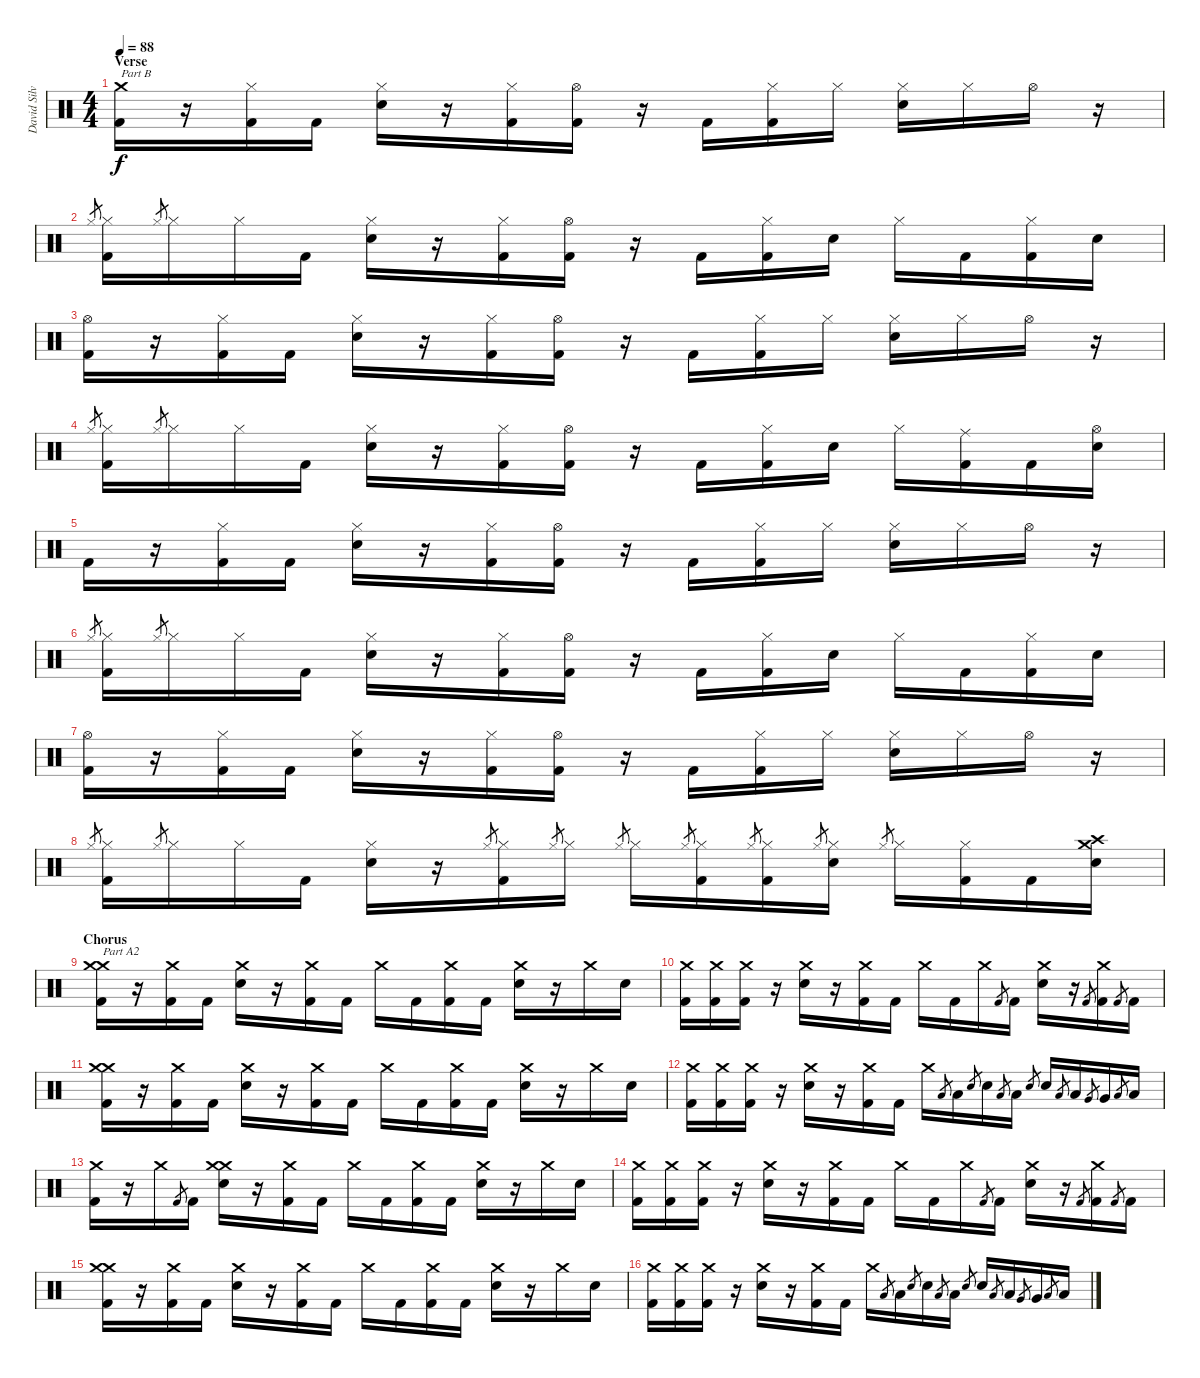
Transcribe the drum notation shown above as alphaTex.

\track ("David Silveria" "David Silv") {instrument percussion}
\staff {score}
\articulation defaults
\ts (4 4)
\section ("" "Verse")
\tempo 88
\clef neutral
\ks c
("Crash medium (hit)" "Kick (hit) 2").16{txt "Part B" dy f} r.16 ("Hi-Hat (closed)" "Kick (hit) 2").16 "Kick (hit) 2".16 ("Hi-Hat (closed)" "Snare (hit) 2").16 r.16 ("Hi-Hat (closed)" "Kick (hit) 2").16 ("Hi-Hat (open)" "Kick (hit) 2").16 r.16 "Kick (hit) 2".16 ("Hi-Hat (closed)" "Kick (hit) 2").16 "Hi-Hat (closed)".16 ("Hi-Hat (closed)" "Snare (hit) 2").16 "Hi-Hat (closed)".16 "Hi-Hat (open)".16 r.16 |
"Hi-Hat (closed)".8{gr} ("Hi-Hat (closed)" "Kick (hit) 2").16 "Hi-Hat (closed)".8{gr} "Hi-Hat (closed)".16 "Hi-Hat (closed)".16 "Kick (hit) 2".16 ("Hi-Hat (closed)" "Snare (hit) 2").16 r.16 ("Hi-Hat (closed)" "Kick (hit) 2").16 ("Hi-Hat (open)" "Kick (hit) 2").16 r.16 "Kick (hit) 2".16 ("Hi-Hat (closed)" "Kick (hit) 2").16 "Snare (hit) 2".16 "Hi-Hat (closed)".16 "Kick (hit) 2".16 ("Hi-Hat (closed)" "Kick (hit) 2").16 "Snare (hit) 2".16 |
("Hi-Hat (open)" "Kick (hit) 2").16 r.16 ("Hi-Hat (closed)" "Kick (hit) 2").16 "Kick (hit) 2".16 ("Hi-Hat (closed)" "Snare (hit) 2").16 r.16 ("Hi-Hat (closed)" "Kick (hit) 2").16 ("Hi-Hat (open)" "Kick (hit) 2").16 r.16 "Kick (hit) 2".16 ("Hi-Hat (closed)" "Kick (hit) 2").16 "Hi-Hat (closed)".16 ("Hi-Hat (closed)" "Snare (hit) 2").16 "Hi-Hat (closed)".16 "Hi-Hat (open)".16 r.16 |
"Hi-Hat (closed)".8{gr} ("Hi-Hat (closed)" "Kick (hit) 2").16 "Hi-Hat (closed)".8{gr} "Hi-Hat (closed)".16 "Hi-Hat (closed)".16 "Kick (hit) 2".16 ("Hi-Hat (closed)" "Snare (hit) 2").16 r.16 ("Hi-Hat (closed)" "Kick (hit) 2").16 ("Hi-Hat (open)" "Kick (hit) 2").16 r.16 "Kick (hit) 2".16 ("Hi-Hat (closed)" "Kick (hit) 2").16 "Snare (hit) 2".16 "Hi-Hat (closed)".16 ("Ride (middle)" "Kick (hit) 2").16 "Kick (hit) 2".16 ("Hi-Hat (open)" "Snare (hit) 2").16 |
"Kick (hit) 2".16 r.16 ("Hi-Hat (closed)" "Kick (hit) 2").16 "Kick (hit) 2".16 ("Hi-Hat (closed)" "Snare (hit) 2").16 r.16 ("Hi-Hat (closed)" "Kick (hit) 2").16 ("Hi-Hat (open)" "Kick (hit) 2").16 r.16 "Kick (hit) 2".16 ("Hi-Hat (closed)" "Kick (hit) 2").16 "Hi-Hat (closed)".16 ("Hi-Hat (closed)" "Snare (hit) 2").16 "Hi-Hat (closed)".16 "Hi-Hat (open)".16 r.16 |
"Hi-Hat (closed)".8{gr} ("Hi-Hat (closed)" "Kick (hit) 2").16 "Hi-Hat (closed)".8{gr} "Hi-Hat (closed)".16 "Hi-Hat (closed)".16 "Kick (hit) 2".16 ("Hi-Hat (closed)" "Snare (hit) 2").16 r.16 ("Hi-Hat (closed)" "Kick (hit) 2").16 ("Hi-Hat (open)" "Kick (hit) 2").16 r.16 "Kick (hit) 2".16 ("Hi-Hat (closed)" "Kick (hit) 2").16 "Snare (hit) 2".16 "Hi-Hat (closed)".16 "Kick (hit) 2".16 ("Hi-Hat (closed)" "Kick (hit) 2").16 "Snare (hit) 2".16 |
("Hi-Hat (open)" "Kick (hit) 2").16 r.16 ("Hi-Hat (closed)" "Kick (hit) 2").16 "Kick (hit) 2".16 ("Hi-Hat (closed)" "Snare (hit) 2").16 r.16 ("Hi-Hat (closed)" "Kick (hit) 2").16 ("Hi-Hat (open)" "Kick (hit) 2").16 r.16 "Kick (hit) 2".16 ("Hi-Hat (closed)" "Kick (hit) 2").16 "Hi-Hat (closed)".16 ("Hi-Hat (closed)" "Snare (hit) 2").16 "Hi-Hat (closed)".16 "Hi-Hat (open)".16 r.16 |
"Hi-Hat (closed)".8{gr} ("Hi-Hat (closed)" "Kick (hit) 2").16 "Hi-Hat (closed)".8{gr} "Hi-Hat (closed)".16 "Hi-Hat (closed)".16 "Kick (hit) 2".16 ("Hi-Hat (closed)" "Snare (hit) 2").16 r.16 "Hi-Hat (closed)".8{gr} ("Hi-Hat (closed)" "Kick (hit) 2").16 "Hi-Hat (closed)".8{gr} "Hi-Hat (closed)".16 "Hi-Hat (closed)".8{gr} "Hi-Hat (closed)".16 "Hi-Hat (closed)".8{gr} ("Hi-Hat (closed)" "Kick (hit) 2").16 "Hi-Hat (closed)".8{gr} ("Hi-Hat (closed)" "Kick (hit) 2").16 "Hi-Hat (closed)".8{gr} ("Hi-Hat (closed)" "Snare (hit) 2").16 "Hi-Hat (closed)".8{gr} "Hi-Hat (closed)".16 ("Hi-Hat (closed)" "Kick (hit) 2").16 "Kick (hit) 2".16 ("Crash medium (hit)" "Crash high (hit)" "Snare (hit) 2").16 |
\section ("" "Chorus")
("Crash medium (hit)" "Crash medium (hit)" "Kick (hit) 2").16{txt "Part A2"} r.16 ("Crash medium (hit)" "Kick (hit) 2").16 "Kick (hit) 2".16 ("Crash medium (hit)" "Snare (hit) 2").16 r.16 ("Crash medium (hit)" "Kick (hit) 2").16 "Kick (hit) 2".16 "Crash medium (hit)".16 "Kick (hit) 2".16 ("Crash medium (hit)" "Kick (hit) 2").16 "Kick (hit) 2".16 ("Crash medium (hit)" "Snare (hit) 2").16 r.16 "Crash medium (hit)".16 "Snare (hit) 2".16 |
("Crash medium (hit)" "Kick (hit) 2").16 ("Crash medium (hit)" "Kick (hit) 2").16 ("Crash medium (hit)" "Kick (hit) 2").16 r.16 ("Crash medium (hit)" "Snare (hit) 2").16 r.16 ("Crash medium (hit)" "Kick (hit) 2").16 "Kick (hit) 2".16 "Crash medium (hit)".16 "Kick (hit) 2".16 "Crash medium (hit)".16 "Kick (hit) 2".8{gr} "Kick (hit) 2".16 ("Crash medium (hit)" "Snare (hit) 2").16 r.16 "Kick (hit) 2".8{gr} ("Crash medium (hit)" "Kick (hit) 2").16 "Kick (hit) 2".8{gr} "Kick (hit) 2".16 |
("Crash medium (hit)" "Crash medium (hit)" "Kick (hit) 2").16 r.16 ("Crash medium (hit)" "Kick (hit) 2").16 "Kick (hit) 2".16 ("Crash medium (hit)" "Snare (hit) 2").16 r.16 ("Crash medium (hit)" "Kick (hit) 2").16 "Kick (hit) 2".16 "Crash medium (hit)".16 "Kick (hit) 2".16 ("Crash medium (hit)" "Kick (hit) 2").16 "Kick (hit) 2".16 ("Crash medium (hit)" "Snare (hit) 2").16 r.16 "Crash medium (hit)".16 "Snare (hit) 2".16 |
("Crash medium (hit)" "Kick (hit) 2").16 ("Crash medium (hit)" "Kick (hit) 2").16 ("Crash medium (hit)" "Kick (hit) 2").16 r.16 ("Crash medium (hit)" "Snare (hit) 2").16 r.16 ("Crash medium (hit)" "Kick (hit) 2").16 "Kick (hit) 2".16 "Crash medium (hit)".16 "Low Tom (hit)".8{gr} "Low Tom (hit)".16 "Snare (hit) 2".8{gr} "Snare (hit) 2".16 "Low Tom (hit)".8{gr} "Low Tom (hit)".16 "Snare (hit) 2".8{gr} "Snare (hit) 2".16 "Low Tom (hit)".8{gr} "Low Tom (hit)".16 "Very Low Tom (hit)".8{gr} "Very Low Tom (hit)".16 "Low Floor Tom (hit)".8{gr} "Low Floor Tom (hit)".16 |
("Crash medium (hit)" "Kick (hit) 2").16 r.16 "Crash medium (hit)".16 "Kick (hit) 2".8{gr} "Kick (hit) 2".16 ("Crash medium (hit)" "Crash medium (hit)" "Snare (hit) 2").16 r.16 ("Crash medium (hit)" "Kick (hit) 2").16 "Kick (hit) 2".16 "Crash medium (hit)".16 "Kick (hit) 2".16 ("Crash medium (hit)" "Kick (hit) 2").16 "Kick (hit) 2".16 ("Crash medium (hit)" "Snare (hit) 2").16 r.16 "Crash medium (hit)".16 "Snare (hit) 2".16 |
("Crash medium (hit)" "Kick (hit) 2").16 ("Crash medium (hit)" "Kick (hit) 2").16 ("Crash medium (hit)" "Kick (hit) 2").16 r.16 ("Crash medium (hit)" "Snare (hit) 2").16 r.16 ("Crash medium (hit)" "Kick (hit) 2").16 "Kick (hit) 2".16 "Crash medium (hit)".16 "Kick (hit) 2".16 "Crash medium (hit)".16 "Kick (hit) 2".8{gr} "Kick (hit) 2".16 ("Crash medium (hit)" "Snare (hit) 2").16 r.16 "Kick (hit) 2".8{gr} ("Crash medium (hit)" "Kick (hit) 2").16 "Kick (hit) 2".8{gr} "Kick (hit) 2".16 |
("Crash medium (hit)" "Crash medium (hit)" "Kick (hit) 2").16 r.16 ("Crash medium (hit)" "Kick (hit) 2").16 "Kick (hit) 2".16 ("Crash medium (hit)" "Snare (hit) 2").16 r.16 ("Crash medium (hit)" "Kick (hit) 2").16 "Kick (hit) 2".16 "Crash medium (hit)".16 "Kick (hit) 2".16 ("Crash medium (hit)" "Kick (hit) 2").16 "Kick (hit) 2".16 ("Crash medium (hit)" "Snare (hit) 2").16 r.16 "Crash medium (hit)".16 "Snare (hit) 2".16 |
("Crash medium (hit)" "Kick (hit) 2").16 ("Crash medium (hit)" "Kick (hit) 2").16 ("Crash medium (hit)" "Kick (hit) 2").16 r.16 ("Crash medium (hit)" "Snare (hit) 2").16 r.16 ("Crash medium (hit)" "Kick (hit) 2").16 "Kick (hit) 2".16 "Crash medium (hit)".16 "Low Tom (hit)".8{gr} "Low Tom (hit)".16 "Snare (hit) 2".8{gr} "Snare (hit) 2".16 "Low Tom (hit)".8{gr} "Low Tom (hit)".16 "Snare (hit) 2".8{gr} "Snare (hit) 2".16 "Low Tom (hit)".8{gr} "Low Tom (hit)".16 "Very Low Tom (hit)".8{gr} "Very Low Tom (hit)".16 "Low Floor Tom (hit)".8{gr} "Low Floor Tom (hit)".16
